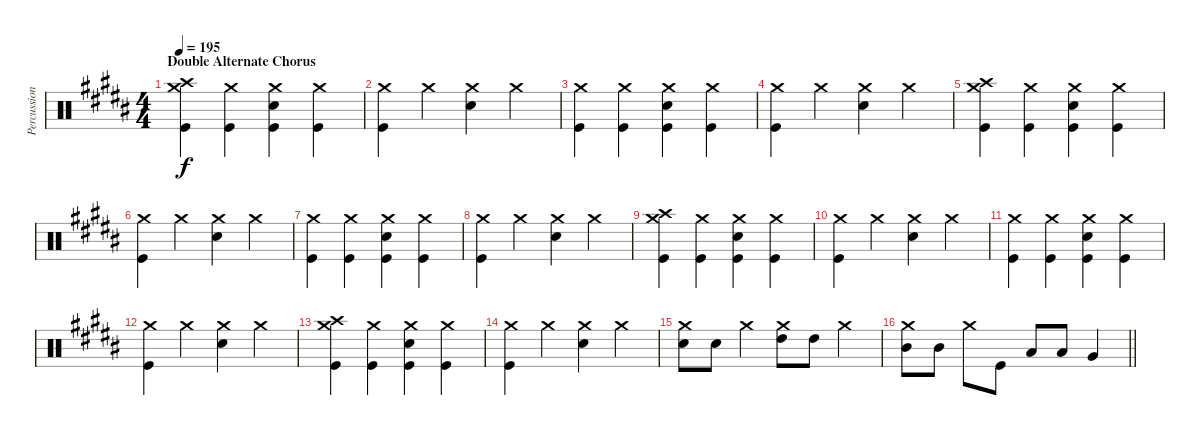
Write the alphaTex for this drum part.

\track ("Percussion" "Percussion") {instrument percussion}
\staff {score}
\articulation defaults
\ts (4 4)
\section ("" "Double Alternate Chorus")
\tempo 195
\clef neutral
\ks b
("Crash high (hit)" "Crash medium (hit)" "Kick (hit)").4{dy f} ("Crash medium (hit)" "Kick (hit)").4 ("Crash medium (hit)" "Electric Snare (hit)" "Kick (hit)").4 ("Crash medium (hit)" "Kick (hit)").4 |
("Crash medium (hit)" "Kick (hit)").4 "Crash medium (hit)".4 ("Crash medium (hit)" "Electric Snare (hit)").4 "Crash medium (hit)".4 |
("Crash medium (hit)" "Kick (hit)").4 ("Crash medium (hit)" "Kick (hit)").4 ("Crash medium (hit)" "Electric Snare (hit)" "Kick (hit)").4 ("Crash medium (hit)" "Kick (hit)").4 |
("Crash medium (hit)" "Kick (hit)").4 "Crash medium (hit)".4 ("Crash medium (hit)" "Electric Snare (hit)").4 "Crash medium (hit)".4 |
("Crash high (hit)" "Crash medium (hit)" "Kick (hit)").4 ("Crash medium (hit)" "Kick (hit)").4 ("Crash medium (hit)" "Electric Snare (hit)" "Kick (hit)").4 ("Crash medium (hit)" "Kick (hit)").4 |
("Crash medium (hit)" "Kick (hit)").4 "Crash medium (hit)".4 ("Crash medium (hit)" "Electric Snare (hit)").4 "Crash medium (hit)".4 |
("Crash medium (hit)" "Kick (hit)").4 ("Crash medium (hit)" "Kick (hit)").4 ("Crash medium (hit)" "Electric Snare (hit)" "Kick (hit)").4 ("Crash medium (hit)" "Kick (hit)").4 |
("Crash medium (hit)" "Kick (hit)").4 "Crash medium (hit)".4 ("Crash medium (hit)" "Electric Snare (hit)").4 "Crash medium (hit)".4 |
("Crash high (hit)" "Crash medium (hit)" "Kick (hit)").4 ("Crash medium (hit)" "Kick (hit)").4 ("Crash medium (hit)" "Electric Snare (hit)" "Kick (hit)").4 ("Crash medium (hit)" "Kick (hit)").4 |
("Crash medium (hit)" "Kick (hit)").4 "Crash medium (hit)".4 ("Crash medium (hit)" "Electric Snare (hit)").4 "Crash medium (hit)".4 |
("Crash medium (hit)" "Kick (hit)").4 ("Crash medium (hit)" "Kick (hit)").4 ("Crash medium (hit)" "Electric Snare (hit)" "Kick (hit)").4 ("Crash medium (hit)" "Kick (hit)").4 |
("Crash medium (hit)" "Kick (hit)").4 "Crash medium (hit)".4 ("Crash medium (hit)" "Electric Snare (hit)").4 "Crash medium (hit)".4 |
("Crash high (hit)" "Crash medium (hit)" "Kick (hit)").4 ("Crash medium (hit)" "Kick (hit)").4 ("Crash medium (hit)" "Electric Snare (hit)" "Kick (hit)").4 ("Crash medium (hit)" "Kick (hit)").4 |
("Crash medium (hit)" "Kick (hit)").4 "Crash medium (hit)".4 ("Crash medium (hit)" "Electric Snare (hit)").4 "Crash medium (hit)".4 |
("Crash medium (hit)" "Electric Snare (hit)").8 "Electric Snare (hit)".8 "Crash medium (hit)".4 ("Crash medium (hit)" "High Tom (hit)").8 "High Tom (hit)".8 "Crash medium (hit)".4 |
\barLineRight lightlight
("Crash medium (hit)" "Mid Tom (hit)").8 "Mid Tom (hit)".8 "Crash medium (hit)".8 "Kick (hit)".8 "Low Tom (hit)".8 "Low Tom (hit)".8 "Very Low Tom (hit)".4
